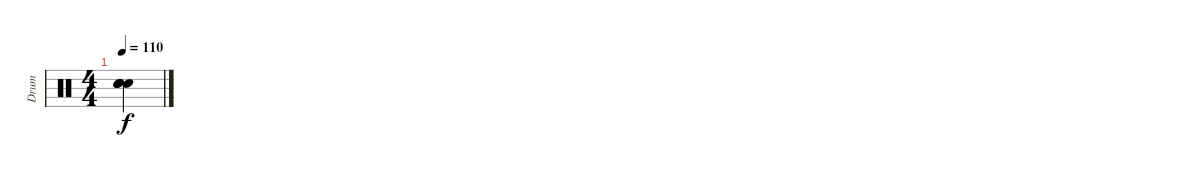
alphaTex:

\track ("Drum" "Drum") {instrument percussion}
\staff {score}
\articulation defaults
\ts (4 4)
\tempo 110
\clef neutral
\ks c
("Snare (hit)"{t} "Snare (hit)"{t} "Snare (hit)"{t} "Snare (hit)"{t}).4{dy f}
